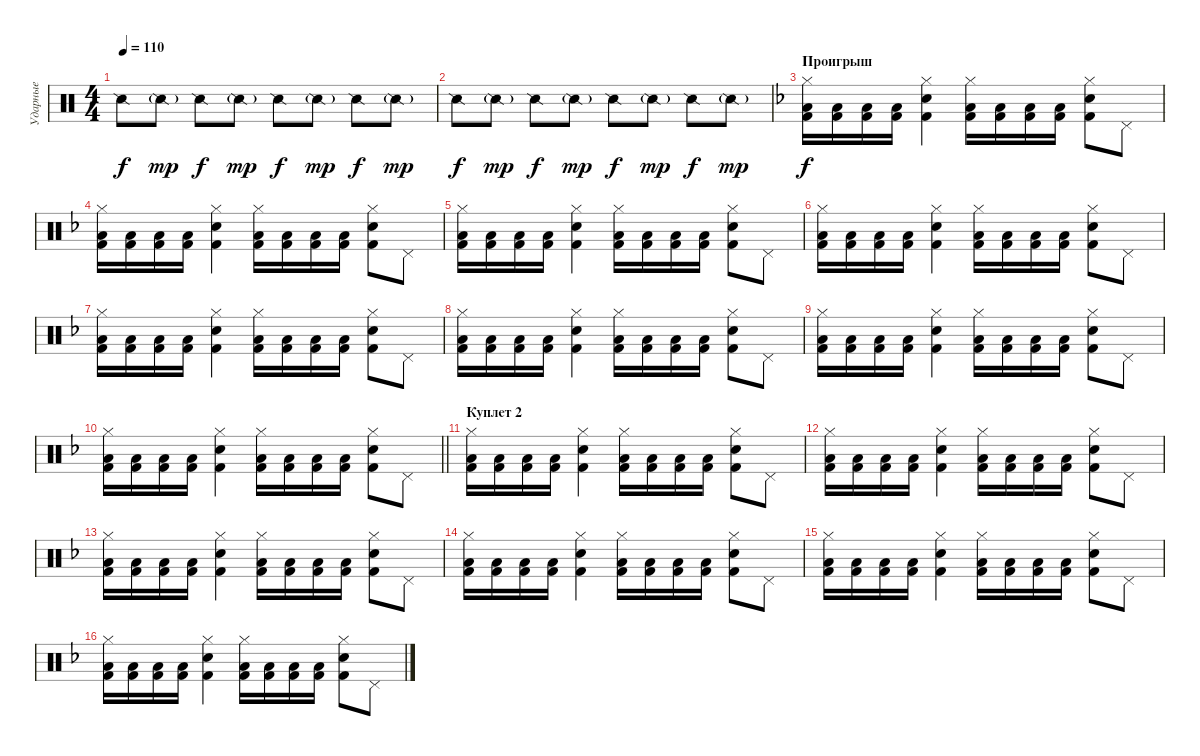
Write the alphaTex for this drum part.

\track ("Ударные" "Ударные") {instrument percussion}
\staff {score}
\articulation defaults
\ts (4 4)
\tempo 110
\clef neutral
\ks c "Snare (side stick) 2".8{dy f} "Snare (side stick) 2"{g}.8{dy mp} "Snare (side stick) 2".8{dy f} "Snare (side stick) 2"{g}.8{dy mp} "Snare (side stick) 2".8{dy f} "Snare (side stick) 2"{g}.8{dy mp} "Snare (side stick) 2".8{dy f} "Snare (side stick) 2"{g}.8{dy mp}
|
"Snare (side stick) 2".8{dy f} "Snare (side stick) 2"{g}.8{dy mp} "Snare (side stick) 2".8{dy f} "Snare (side stick) 2"{g}.8{dy mp} "Snare (side stick) 2".8{dy f} "Snare (side stick) 2"{g}.8{dy mp} "Snare (side stick) 2".8{dy f} "Snare (side stick) 2"{g}.8{dy mp} |
\section ("" "Проигрыш")
\ks dminor
("Hi-Hat (closed)" "Low Tom (hit)" "Kick (hit) 2").16{dy f volume 13} ("Low Tom (hit)" "Kick (hit) 2").16 ("Low Tom (hit)" "Kick (hit) 2").16 ("Low Tom (hit)" "Kick (hit) 2").16 ("Hi-Hat (closed)" "Electric Snare (hit)" "Kick (hit) 2").4 ("Hi-Hat (closed)" "Low Tom (hit)" "Kick (hit) 2").16 ("Low Tom (hit)" "Kick (hit) 2").16 ("Low Tom (hit)" "Kick (hit) 2").16 ("Low Tom (hit)" "Kick (hit) 2").16 ("Hi-Hat (closed)" "Electric Snare (hit)" "Kick (hit) 2").8 "Pedal Hi-Hat (hit)".8 |
("Hi-Hat (closed)" "Low Tom (hit)" "Kick (hit) 2").16 ("Low Tom (hit)" "Kick (hit) 2").16 ("Low Tom (hit)" "Kick (hit) 2").16 ("Low Tom (hit)" "Kick (hit) 2").16 ("Hi-Hat (closed)" "Electric Snare (hit)" "Kick (hit) 2").4 ("Hi-Hat (closed)" "Low Tom (hit)" "Kick (hit) 2").16 ("Low Tom (hit)" "Kick (hit) 2").16 ("Low Tom (hit)" "Kick (hit) 2").16 ("Low Tom (hit)" "Kick (hit) 2").16 ("Hi-Hat (closed)" "Electric Snare (hit)" "Kick (hit) 2").8 "Pedal Hi-Hat (hit)".8 |
("Hi-Hat (closed)" "Low Tom (hit)" "Kick (hit) 2").16 ("Low Tom (hit)" "Kick (hit) 2").16 ("Low Tom (hit)" "Kick (hit) 2").16 ("Low Tom (hit)" "Kick (hit) 2").16 ("Hi-Hat (closed)" "Electric Snare (hit)" "Kick (hit) 2").4 ("Hi-Hat (closed)" "Low Tom (hit)" "Kick (hit) 2").16 ("Low Tom (hit)" "Kick (hit) 2").16 ("Low Tom (hit)" "Kick (hit) 2").16 ("Low Tom (hit)" "Kick (hit) 2").16 ("Hi-Hat (closed)" "Electric Snare (hit)" "Kick (hit) 2").8 "Pedal Hi-Hat (hit)".8 |
("Hi-Hat (closed)" "Low Tom (hit)" "Kick (hit) 2").16 ("Low Tom (hit)" "Kick (hit) 2").16 ("Low Tom (hit)" "Kick (hit) 2").16 ("Low Tom (hit)" "Kick (hit) 2").16 ("Hi-Hat (closed)" "Electric Snare (hit)" "Kick (hit) 2").4 ("Hi-Hat (closed)" "Low Tom (hit)" "Kick (hit) 2").16 ("Low Tom (hit)" "Kick (hit) 2").16 ("Low Tom (hit)" "Kick (hit) 2").16 ("Low Tom (hit)" "Kick (hit) 2").16 ("Hi-Hat (closed)" "Electric Snare (hit)" "Kick (hit) 2").8 "Pedal Hi-Hat (hit)".8 |
("Hi-Hat (closed)" "Low Tom (hit)" "Kick (hit) 2").16 ("Low Tom (hit)" "Kick (hit) 2").16 ("Low Tom (hit)" "Kick (hit) 2").16 ("Low Tom (hit)" "Kick (hit) 2").16 ("Hi-Hat (closed)" "Electric Snare (hit)" "Kick (hit) 2").4 ("Hi-Hat (closed)" "Low Tom (hit)" "Kick (hit) 2").16 ("Low Tom (hit)" "Kick (hit) 2").16 ("Low Tom (hit)" "Kick (hit) 2").16 ("Low Tom (hit)" "Kick (hit) 2").16 ("Hi-Hat (closed)" "Electric Snare (hit)" "Kick (hit) 2").8 "Pedal Hi-Hat (hit)".8 |
("Hi-Hat (closed)" "Low Tom (hit)" "Kick (hit) 2").16 ("Low Tom (hit)" "Kick (hit) 2").16 ("Low Tom (hit)" "Kick (hit) 2").16 ("Low Tom (hit)" "Kick (hit) 2").16 ("Hi-Hat (closed)" "Electric Snare (hit)" "Kick (hit) 2").4 ("Hi-Hat (closed)" "Low Tom (hit)" "Kick (hit) 2").16 ("Low Tom (hit)" "Kick (hit) 2").16 ("Low Tom (hit)" "Kick (hit) 2").16 ("Low Tom (hit)" "Kick (hit) 2").16 ("Hi-Hat (closed)" "Electric Snare (hit)" "Kick (hit) 2").8 "Pedal Hi-Hat (hit)".8 |
("Hi-Hat (closed)" "Low Tom (hit)" "Kick (hit) 2").16 ("Low Tom (hit)" "Kick (hit) 2").16 ("Low Tom (hit)" "Kick (hit) 2").16 ("Low Tom (hit)" "Kick (hit) 2").16 ("Hi-Hat (closed)" "Electric Snare (hit)" "Kick (hit) 2").4 ("Hi-Hat (closed)" "Low Tom (hit)" "Kick (hit) 2").16 ("Low Tom (hit)" "Kick (hit) 2").16 ("Low Tom (hit)" "Kick (hit) 2").16 ("Low Tom (hit)" "Kick (hit) 2").16 ("Hi-Hat (closed)" "Electric Snare (hit)" "Kick (hit) 2").8 "Pedal Hi-Hat (hit)".8 |
\barLineRight lightlight
("Hi-Hat (closed)" "Low Tom (hit)" "Kick (hit) 2").16 ("Low Tom (hit)" "Kick (hit) 2").16 ("Low Tom (hit)" "Kick (hit) 2").16 ("Low Tom (hit)" "Kick (hit) 2").16 ("Hi-Hat (closed)" "Electric Snare (hit)" "Kick (hit) 2").4 ("Hi-Hat (closed)" "Low Tom (hit)" "Kick (hit) 2").16 ("Low Tom (hit)" "Kick (hit) 2").16 ("Low Tom (hit)" "Kick (hit) 2").16 ("Low Tom (hit)" "Kick (hit) 2").16 ("Hi-Hat (closed)" "Electric Snare (hit)" "Kick (hit) 2").8 "Pedal Hi-Hat (hit)".8 |
\section ("" "Куплет 2")
("Hi-Hat (closed)" "Low Tom (hit)" "Kick (hit) 2").16 ("Low Tom (hit)" "Kick (hit) 2").16 ("Low Tom (hit)" "Kick (hit) 2").16 ("Low Tom (hit)" "Kick (hit) 2").16 ("Hi-Hat (closed)" "Electric Snare (hit)" "Kick (hit) 2").4 ("Hi-Hat (closed)" "Low Tom (hit)" "Kick (hit) 2").16 ("Low Tom (hit)" "Kick (hit) 2").16 ("Low Tom (hit)" "Kick (hit) 2").16 ("Low Tom (hit)" "Kick (hit) 2").16 ("Hi-Hat (closed)" "Electric Snare (hit)" "Kick (hit) 2").8 "Pedal Hi-Hat (hit)".8 |
("Hi-Hat (closed)" "Low Tom (hit)" "Kick (hit) 2").16 ("Low Tom (hit)" "Kick (hit) 2").16 ("Low Tom (hit)" "Kick (hit) 2").16 ("Low Tom (hit)" "Kick (hit) 2").16 ("Hi-Hat (closed)" "Electric Snare (hit)" "Kick (hit) 2").4 ("Hi-Hat (closed)" "Low Tom (hit)" "Kick (hit) 2").16 ("Low Tom (hit)" "Kick (hit) 2").16 ("Low Tom (hit)" "Kick (hit) 2").16 ("Low Tom (hit)" "Kick (hit) 2").16 ("Hi-Hat (closed)" "Electric Snare (hit)" "Kick (hit) 2").8 "Pedal Hi-Hat (hit)".8 |
("Hi-Hat (closed)" "Low Tom (hit)" "Kick (hit) 2").16 ("Low Tom (hit)" "Kick (hit) 2").16 ("Low Tom (hit)" "Kick (hit) 2").16 ("Low Tom (hit)" "Kick (hit) 2").16 ("Hi-Hat (closed)" "Electric Snare (hit)" "Kick (hit) 2").4 ("Hi-Hat (closed)" "Low Tom (hit)" "Kick (hit) 2").16 ("Low Tom (hit)" "Kick (hit) 2").16 ("Low Tom (hit)" "Kick (hit) 2").16 ("Low Tom (hit)" "Kick (hit) 2").16 ("Hi-Hat (closed)" "Electric Snare (hit)" "Kick (hit) 2").8 "Pedal Hi-Hat (hit)".8 |
("Hi-Hat (closed)" "Low Tom (hit)" "Kick (hit) 2").16 ("Low Tom (hit)" "Kick (hit) 2").16 ("Low Tom (hit)" "Kick (hit) 2").16 ("Low Tom (hit)" "Kick (hit) 2").16 ("Hi-Hat (closed)" "Electric Snare (hit)" "Kick (hit) 2").4 ("Hi-Hat (closed)" "Low Tom (hit)" "Kick (hit) 2").16 ("Low Tom (hit)" "Kick (hit) 2").16 ("Low Tom (hit)" "Kick (hit) 2").16 ("Low Tom (hit)" "Kick (hit) 2").16 ("Hi-Hat (closed)" "Electric Snare (hit)" "Kick (hit) 2").8 "Pedal Hi-Hat (hit)".8 |
("Hi-Hat (closed)" "Low Tom (hit)" "Kick (hit) 2").16 ("Low Tom (hit)" "Kick (hit) 2").16 ("Low Tom (hit)" "Kick (hit) 2").16 ("Low Tom (hit)" "Kick (hit) 2").16 ("Hi-Hat (closed)" "Electric Snare (hit)" "Kick (hit) 2").4 ("Hi-Hat (closed)" "Low Tom (hit)" "Kick (hit) 2").16 ("Low Tom (hit)" "Kick (hit) 2").16 ("Low Tom (hit)" "Kick (hit) 2").16 ("Low Tom (hit)" "Kick (hit) 2").16 ("Hi-Hat (closed)" "Electric Snare (hit)" "Kick (hit) 2").8 "Pedal Hi-Hat (hit)".8 |
("Hi-Hat (closed)" "Low Tom (hit)" "Kick (hit) 2").16 ("Low Tom (hit)" "Kick (hit) 2").16 ("Low Tom (hit)" "Kick (hit) 2").16 ("Low Tom (hit)" "Kick (hit) 2").16 ("Hi-Hat (closed)" "Electric Snare (hit)" "Kick (hit) 2").4 ("Hi-Hat (closed)" "Low Tom (hit)" "Kick (hit) 2").16 ("Low Tom (hit)" "Kick (hit) 2").16 ("Low Tom (hit)" "Kick (hit) 2").16 ("Low Tom (hit)" "Kick (hit) 2").16 ("Hi-Hat (closed)" "Electric Snare (hit)" "Kick (hit) 2").8 "Pedal Hi-Hat (hit)".8
